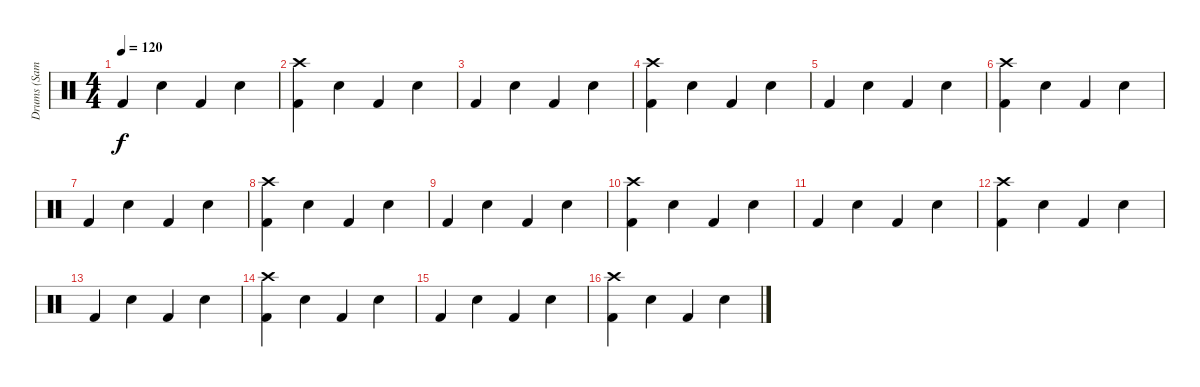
\track ("Drums (Sami Karppinen)" "Drums (Sam") {instrument percussion}
\staff {score}
\articulation defaults
\ts (4 4)
\tempo 120
\clef neutral
\ks c "Kick (hit) 2".4{dy f} "Electric Snare (hit)".4 "Kick (hit) 2".4 "Electric Snare (hit)".4
|
("Crash high (hit)" "Kick (hit) 2").4 "Electric Snare (hit)".4 "Kick (hit) 2".4 "Electric Snare (hit)".4 |
"Kick (hit) 2".4 "Electric Snare (hit)".4 "Kick (hit) 2".4 "Electric Snare (hit)".4 |
("Crash high (hit)" "Kick (hit) 2").4 "Electric Snare (hit)".4 "Kick (hit) 2".4 "Electric Snare (hit)".4 |
"Kick (hit) 2".4 "Electric Snare (hit)".4 "Kick (hit) 2".4 "Electric Snare (hit)".4 |
("Crash high (hit)" "Kick (hit) 2").4 "Electric Snare (hit)".4 "Kick (hit) 2".4 "Electric Snare (hit)".4 |
"Kick (hit) 2".4 "Electric Snare (hit)".4 "Kick (hit) 2".4 "Electric Snare (hit)".4 |
("Crash high (hit)" "Kick (hit) 2").4 "Electric Snare (hit)".4 "Kick (hit) 2".4 "Electric Snare (hit)".4 |
"Kick (hit) 2".4 "Electric Snare (hit)".4 "Kick (hit) 2".4 "Electric Snare (hit)".4 |
("Crash high (hit)" "Kick (hit) 2").4{volume 14} "Electric Snare (hit)".4 "Kick (hit) 2".4 "Electric Snare (hit)".4 |
"Kick (hit) 2".4 "Electric Snare (hit)".4 "Kick (hit) 2".4 "Electric Snare (hit)".4 |
("Crash high (hit)" "Kick (hit) 2").4{volume 12} "Electric Snare (hit)".4 "Kick (hit) 2".4 "Electric Snare (hit)".4 |
"Kick (hit) 2".4 "Electric Snare (hit)".4 "Kick (hit) 2".4 "Electric Snare (hit)".4 |
("Crash high (hit)" "Kick (hit) 2").4{volume 12} "Electric Snare (hit)".4 "Kick (hit) 2".4 "Electric Snare (hit)".4 |
"Kick (hit) 2".4 "Electric Snare (hit)".4 "Kick (hit) 2".4 "Electric Snare (hit)".4 |
("Crash high (hit)" "Kick (hit) 2").4{volume 10} "Electric Snare (hit)".4 "Kick (hit) 2".4 "Electric Snare (hit)".4
